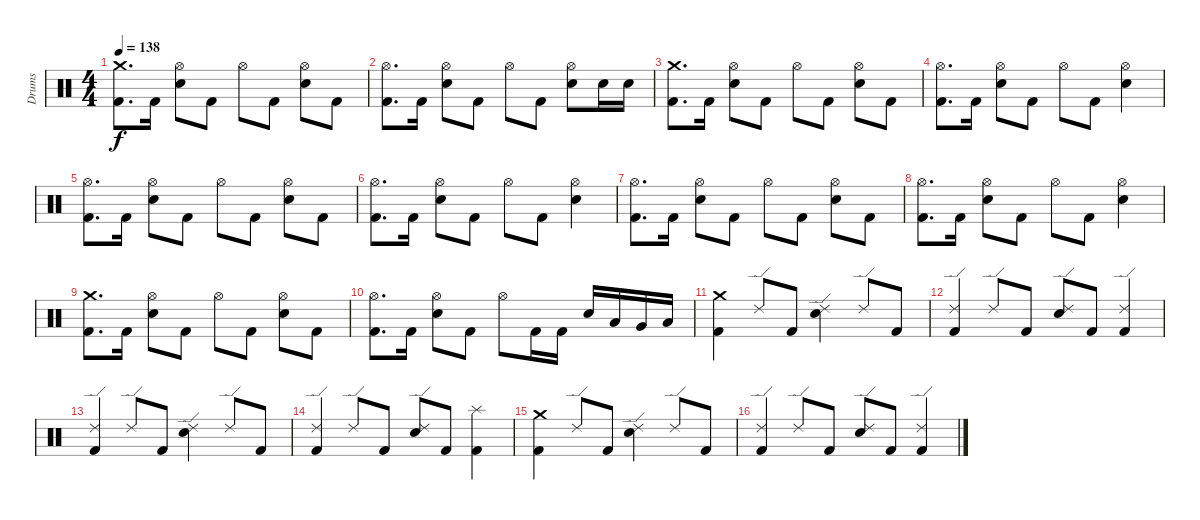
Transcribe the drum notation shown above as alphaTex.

\track ("Drums" "Drums") {instrument percussion}
\staff {score}
\articulation defaults
\ts (4 4)
\tempo 138
\clef neutral
\ks c
("Crash medium (hit)" "Kick (hit) 2").8{d dy f} "Kick (hit) 2".16 ("Hi-Hat (open)" "Electric Snare (hit)").8 "Kick (hit) 2".8 "Hi-Hat (open)".8 "Kick (hit) 2".8 ("Hi-Hat (open)" "Electric Snare (hit)").8 "Kick (hit) 2".8 |
("Hi-Hat (open)" "Kick (hit) 2").8{d} "Kick (hit) 2".16 ("Hi-Hat (open)" "Electric Snare (hit)").8 "Kick (hit) 2".8 "Hi-Hat (open)".8 "Kick (hit) 2".8 ("Hi-Hat (open)" "Electric Snare (hit)").8 "Electric Snare (hit)".16 "Electric Snare (hit)".16 |
("Crash medium (hit)" "Kick (hit) 2").8{d} "Kick (hit) 2".16 ("Hi-Hat (open)" "Electric Snare (hit)").8 "Kick (hit) 2".8 "Hi-Hat (open)".8 "Kick (hit) 2".8 ("Hi-Hat (open)" "Electric Snare (hit)").8 "Kick (hit) 2".8 |
("Hi-Hat (open)" "Kick (hit) 2").8{d} "Kick (hit) 2".16 ("Hi-Hat (open)" "Electric Snare (hit)").8 "Kick (hit) 2".8 "Hi-Hat (open)".8 "Kick (hit) 2".8 ("Hi-Hat (open)" "Electric Snare (hit)").4 |
("Hi-Hat (open)" "Kick (hit) 2").8{d} "Kick (hit) 2".16 ("Hi-Hat (open)" "Electric Snare (hit)").8 "Kick (hit) 2".8 "Hi-Hat (open)".8 "Kick (hit) 2".8 ("Hi-Hat (open)" "Electric Snare (hit)").8 "Kick (hit) 2".8 |
("Hi-Hat (open)" "Kick (hit) 2").8{d} "Kick (hit) 2".16 ("Hi-Hat (open)" "Electric Snare (hit)").8 "Kick (hit) 2".8 "Hi-Hat (open)".8 "Kick (hit) 2".8 ("Hi-Hat (open)" "Electric Snare (hit)").4 |
("Hi-Hat (open)" "Kick (hit) 2").8{d} "Kick (hit) 2".16 ("Hi-Hat (open)" "Electric Snare (hit)").8 "Kick (hit) 2".8 "Hi-Hat (open)".8 "Kick (hit) 2".8 ("Hi-Hat (open)" "Electric Snare (hit)").8 "Kick (hit) 2".8 |
("Hi-Hat (open)" "Kick (hit) 2").8{d} "Kick (hit) 2".16 ("Hi-Hat (open)" "Electric Snare (hit)").8 "Kick (hit) 2".8 "Hi-Hat (open)".8 "Kick (hit) 2".8 ("Hi-Hat (open)" "Electric Snare (hit)").4 |
("Crash medium (hit)" "Kick (hit) 2").8{d} "Kick (hit) 2".16 ("Hi-Hat (open)" "Electric Snare (hit)").8 "Kick (hit) 2".8 "Hi-Hat (open)".8 "Kick (hit) 2".8 ("Hi-Hat (open)" "Electric Snare (hit)").8 "Kick (hit) 2".8 |
("Hi-Hat (open)" "Kick (hit) 2").8{d} "Kick (hit) 2".16 ("Hi-Hat (open)" "Electric Snare (hit)").8 "Kick (hit) 2".8 "Hi-Hat (open)".8 "Kick (hit) 2".16 "Kick (hit) 2".16 "Electric Snare (hit)".16 "Low Tom (hit)".16 "Very Low Tom (hit)".16 "Low Floor Tom (hit)".16 |
("Kick (hit) 2" "Crash medium (hit)").4 "Ride (edge) 2".8 "Kick (hit) 2".8 ("Ride (edge) 2" "Electric Snare (hit)").4 "Ride (edge) 2".8 "Kick (hit) 2".8 |
("Ride (edge) 2" "Kick (hit) 2").4 "Ride (edge) 2".8 "Kick (hit) 2".8 ("Ride (edge) 2" "Electric Snare (hit)").8 "Kick (hit) 2".8 ("Ride (edge) 2" "Kick (hit) 2").4 |
("Ride (edge) 2" "Kick (hit) 2").4 "Ride (edge) 2".8 "Kick (hit) 2".8 ("Ride (edge) 2" "Electric Snare (hit)").4 "Ride (edge) 2".8 "Kick (hit) 2".8 |
("Ride (edge) 2" "Kick (hit) 2").4 "Ride (edge) 2".8 "Kick (hit) 2".8 ("Ride (edge) 2" "Electric Snare (hit)").8 "Kick (hit) 2".8 ("Splash (hit)" "Kick (hit) 2").4 |
("Kick (hit) 2" "Crash medium (hit)").4 "Ride (edge) 2".8 "Kick (hit) 2".8 ("Ride (edge) 2" "Electric Snare (hit)").4 "Ride (edge) 2".8 "Kick (hit) 2".8 |
("Ride (edge) 2" "Kick (hit) 2").4 "Ride (edge) 2".8 "Kick (hit) 2".8 ("Ride (edge) 2" "Electric Snare (hit)").8 "Kick (hit) 2".8 ("Ride (edge) 2" "Kick (hit) 2").4
